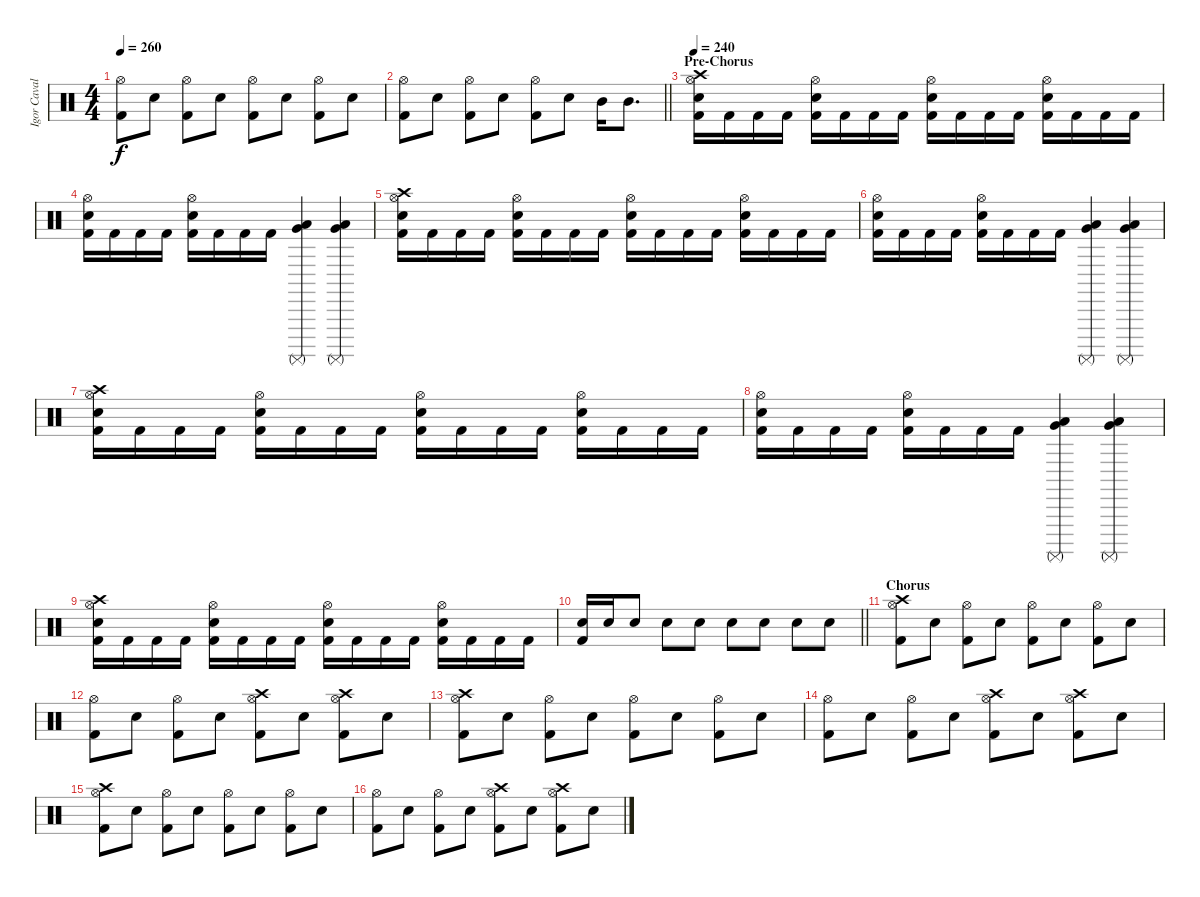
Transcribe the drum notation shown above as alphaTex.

\track ("Igor Cavalera" "Igor Caval") {instrument percussion}
\staff {score}
\articulation defaults
\ts (4 4)
\tempo 260
\clef neutral
\ks c
("Hi-Hat (open)" "Kick (hit) 2").8{dy f} "Electric Snare (hit)".8 ("Hi-Hat (open)" "Kick (hit) 2").8 "Electric Snare (hit)".8 ("Hi-Hat (open)" "Kick (hit) 2").8 "Electric Snare (hit)".8 ("Hi-Hat (open)" "Kick (hit) 2").8 "Electric Snare (hit)".8 |
\barLineRight lightlight
("Hi-Hat (open)" "Kick (hit) 2").8 "Electric Snare (hit)".8 ("Hi-Hat (open)" "Kick (hit) 2").8 "Electric Snare (hit)".8 ("Hi-Hat (open)" "Kick (hit) 2").8 "Electric Snare (hit)".8 "Mid Tom (hit)".16 "Mid Tom (hit)".8{d} |
\section ("" "Pre-Chorus")
\tempo 240
("Crash high (hit)" "Hi-Hat (open)" "Electric Snare (hit)" "Kick (hit) 2").16 "Kick (hit) 2".16 "Kick (hit) 2".16 "Kick (hit) 2".16 ("Hi-Hat (open)" "Electric Snare (hit)" "Kick (hit) 2").16 "Kick (hit) 2".16 "Kick (hit) 2".16 "Kick (hit) 2".16 ("Hi-Hat (open)" "Electric Snare (hit)" "Kick (hit) 2").16 "Kick (hit) 2".16 "Kick (hit) 2".16 "Kick (hit) 2".16 ("Hi-Hat (open)" "Electric Snare (hit)" "Kick (hit) 2").16 "Kick (hit) 2".16 "Kick (hit) 2".16 "Kick (hit) 2".16 |
("Hi-Hat (open)" "Electric Snare (hit)" "Kick (hit) 2").16 "Kick (hit) 2".16 "Kick (hit) 2".16 "Kick (hit) 2".16 ("Hi-Hat (open)" "Electric Snare (hit)" "Kick (hit) 2").16 "Kick (hit) 2".16 "Kick (hit) 2".16 "Kick (hit) 2".16 ("Surdo (mute)" "Low Floor Tom (hit)" "Very Low Tom (hit)").4 ("Surdo (mute)" "Low Floor Tom (hit)" "Very Low Tom (hit)").4 |
("Crash high (hit)" "Hi-Hat (open)" "Electric Snare (hit)" "Kick (hit) 2").16 "Kick (hit) 2".16 "Kick (hit) 2".16 "Kick (hit) 2".16 ("Hi-Hat (open)" "Electric Snare (hit)" "Kick (hit) 2").16 "Kick (hit) 2".16 "Kick (hit) 2".16 "Kick (hit) 2".16 ("Hi-Hat (open)" "Electric Snare (hit)" "Kick (hit) 2").16 "Kick (hit) 2".16 "Kick (hit) 2".16 "Kick (hit) 2".16 ("Hi-Hat (open)" "Electric Snare (hit)" "Kick (hit) 2").16 "Kick (hit) 2".16 "Kick (hit) 2".16 "Kick (hit) 2".16 |
("Hi-Hat (open)" "Electric Snare (hit)" "Kick (hit) 2").16 "Kick (hit) 2".16 "Kick (hit) 2".16 "Kick (hit) 2".16 ("Hi-Hat (open)" "Electric Snare (hit)" "Kick (hit) 2").16 "Kick (hit) 2".16 "Kick (hit) 2".16 "Kick (hit) 2".16 ("Surdo (mute)" "Low Floor Tom (hit)" "Very Low Tom (hit)").4 ("Surdo (mute)" "Low Floor Tom (hit)" "Very Low Tom (hit)").4 |
("Crash high (hit)" "Hi-Hat (open)" "Electric Snare (hit)" "Kick (hit) 2").16 "Kick (hit) 2".16 "Kick (hit) 2".16 "Kick (hit) 2".16 ("Hi-Hat (open)" "Electric Snare (hit)" "Kick (hit) 2").16 "Kick (hit) 2".16 "Kick (hit) 2".16 "Kick (hit) 2".16 ("Hi-Hat (open)" "Electric Snare (hit)" "Kick (hit) 2").16 "Kick (hit) 2".16 "Kick (hit) 2".16 "Kick (hit) 2".16 ("Hi-Hat (open)" "Electric Snare (hit)" "Kick (hit) 2").16 "Kick (hit) 2".16 "Kick (hit) 2".16 "Kick (hit) 2".16 |
("Hi-Hat (open)" "Electric Snare (hit)" "Kick (hit) 2").16 "Kick (hit) 2".16 "Kick (hit) 2".16 "Kick (hit) 2".16 ("Hi-Hat (open)" "Electric Snare (hit)" "Kick (hit) 2").16 "Kick (hit) 2".16 "Kick (hit) 2".16 "Kick (hit) 2".16 ("Surdo (mute)" "Low Floor Tom (hit)" "Very Low Tom (hit)").4 ("Surdo (mute)" "Low Floor Tom (hit)" "Very Low Tom (hit)").4 |
("Crash high (hit)" "Hi-Hat (open)" "Electric Snare (hit)" "Kick (hit) 2").16 "Kick (hit) 2".16 "Kick (hit) 2".16 "Kick (hit) 2".16 ("Hi-Hat (open)" "Electric Snare (hit)" "Kick (hit) 2").16 "Kick (hit) 2".16 "Kick (hit) 2".16 "Kick (hit) 2".16 ("Hi-Hat (open)" "Electric Snare (hit)" "Kick (hit) 2").16 "Kick (hit) 2".16 "Kick (hit) 2".16 "Kick (hit) 2".16 ("Hi-Hat (open)" "Electric Snare (hit)" "Kick (hit) 2").16 "Kick (hit) 2".16 "Kick (hit) 2".16 "Kick (hit) 2".16 |
\barLineRight lightlight
("Snare (hit) 2" "Kick (hit) 2").16 "Snare (hit) 2".16 "Snare (hit) 2".8 "Snare (hit) 2".8 "Snare (hit) 2".8 "Snare (hit) 2".8 "Snare (hit) 2".8 "Snare (hit) 2".8 "Snare (hit) 2".8 |
\section ("" "Chorus")
("Crash high (hit)" "Hi-Hat (open)" "Kick (hit) 2").8 "Electric Snare (hit)".8 ("Hi-Hat (open)" "Kick (hit) 2").8 "Electric Snare (hit)".8 ("Hi-Hat (open)" "Kick (hit) 2").8 "Electric Snare (hit)".8 ("Hi-Hat (open)" "Kick (hit) 2").8 "Electric Snare (hit)".8 |
("Hi-Hat (open)" "Kick (hit) 2").8 "Electric Snare (hit)".8 ("Hi-Hat (open)" "Kick (hit) 2").8 "Electric Snare (hit)".8 ("Crash high (hit)" "Hi-Hat (open)" "Kick (hit) 2").8 "Electric Snare (hit)".8 ("Crash high (hit)" "Hi-Hat (open)" "Kick (hit) 2").8 "Electric Snare (hit)".8 |
("Crash high (hit)" "Hi-Hat (open)" "Kick (hit) 2").8 "Electric Snare (hit)".8 ("Hi-Hat (open)" "Kick (hit) 2").8 "Electric Snare (hit)".8 ("Hi-Hat (open)" "Kick (hit) 2").8 "Electric Snare (hit)".8 ("Hi-Hat (open)" "Kick (hit) 2").8 "Electric Snare (hit)".8 |
("Hi-Hat (open)" "Kick (hit) 2").8 "Electric Snare (hit)".8 ("Hi-Hat (open)" "Kick (hit) 2").8 "Electric Snare (hit)".8 ("Crash high (hit)" "Hi-Hat (open)" "Kick (hit) 2").8 "Electric Snare (hit)".8 ("Crash high (hit)" "Hi-Hat (open)" "Kick (hit) 2").8 "Electric Snare (hit)".8 |
("Crash high (hit)" "Hi-Hat (open)" "Kick (hit) 2").8 "Electric Snare (hit)".8 ("Hi-Hat (open)" "Kick (hit) 2").8 "Electric Snare (hit)".8 ("Hi-Hat (open)" "Kick (hit) 2").8 "Electric Snare (hit)".8 ("Hi-Hat (open)" "Kick (hit) 2").8 "Electric Snare (hit)".8 |
("Hi-Hat (open)" "Kick (hit) 2").8 "Electric Snare (hit)".8 ("Hi-Hat (open)" "Kick (hit) 2").8 "Electric Snare (hit)".8 ("Crash high (hit)" "Hi-Hat (open)" "Kick (hit) 2").8 "Electric Snare (hit)".8 ("Crash high (hit)" "Hi-Hat (open)" "Kick (hit) 2").8 "Electric Snare (hit)".8
